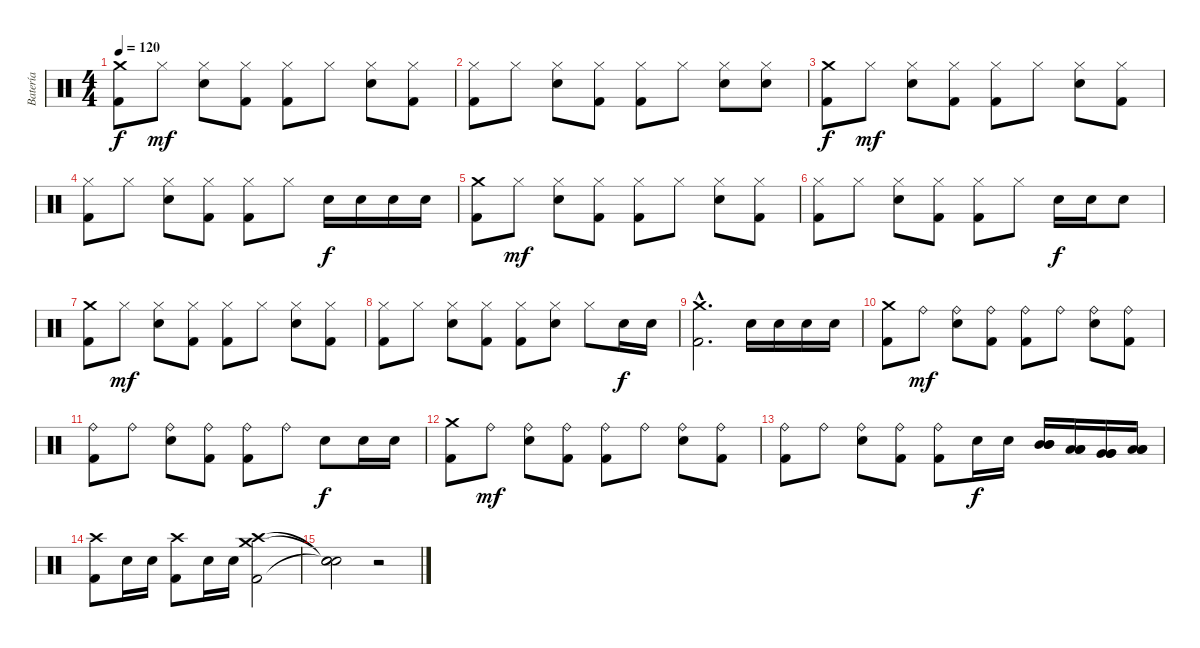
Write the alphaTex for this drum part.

\track ("Batería" "Batería") {instrument percussion}
\staff {score}
\articulation defaults
\ts (4 4)
\tempo 120
\clef neutral
\ks c
("Crash medium (hit)" "Kick (hit) 2").8{dy f} "Hi-Hat (closed)".8{dy mf} ("Hi-Hat (closed)" "Snare (hit) 2").8 ("Hi-Hat (closed)" "Kick (hit) 2").8 ("Hi-Hat (closed)" "Kick (hit) 2").8 "Hi-Hat (closed)".8 ("Hi-Hat (closed)" "Snare (hit) 2").8 ("Hi-Hat (closed)" "Kick (hit) 2").8 |
("Hi-Hat (closed)" "Kick (hit) 2").8 "Hi-Hat (closed)".8 ("Hi-Hat (closed)" "Snare (hit) 2").8 ("Hi-Hat (closed)" "Kick (hit) 2").8 ("Hi-Hat (closed)" "Kick (hit) 2").8 "Hi-Hat (closed)".8 ("Hi-Hat (closed)" "Snare (hit) 2").8 ("Hi-Hat (closed)" "Snare (hit) 2").8 |
("Crash medium (hit)" "Kick (hit) 2").8{dy f} "Hi-Hat (closed)".8{dy mf} ("Hi-Hat (closed)" "Snare (hit) 2").8 ("Hi-Hat (closed)" "Kick (hit) 2").8 ("Hi-Hat (closed)" "Kick (hit) 2").8 "Hi-Hat (closed)".8 ("Hi-Hat (closed)" "Snare (hit) 2").8 ("Hi-Hat (closed)" "Kick (hit) 2").8 |
("Hi-Hat (closed)" "Kick (hit) 2").8 "Hi-Hat (closed)".8 ("Hi-Hat (closed)" "Snare (hit) 2").8 ("Hi-Hat (closed)" "Kick (hit) 2").8 ("Hi-Hat (closed)" "Kick (hit) 2").8 "Hi-Hat (closed)".8 "Snare (hit) 2".16{dy f} "Snare (hit) 2".16 "Snare (hit) 2".16 "Snare (hit) 2".16 |
("Crash medium (hit)" "Kick (hit) 2").8 "Hi-Hat (closed)".8{dy mf} ("Hi-Hat (closed)" "Snare (hit) 2").8 ("Hi-Hat (closed)" "Kick (hit) 2").8 ("Hi-Hat (closed)" "Kick (hit) 2").8 "Hi-Hat (closed)".8 ("Hi-Hat (closed)" "Snare (hit) 2").8 ("Hi-Hat (closed)" "Kick (hit) 2").8 |
("Hi-Hat (closed)" "Kick (hit) 2").8 "Hi-Hat (closed)".8 ("Hi-Hat (closed)" "Snare (hit) 2").8 ("Hi-Hat (closed)" "Kick (hit) 2").8 ("Hi-Hat (closed)" "Kick (hit) 2").8 "Hi-Hat (closed)".8 "Snare (hit) 2".16{dy f} "Snare (hit) 2".16 "Snare (hit) 2".8 |
("Crash medium (hit)" "Kick (hit) 2").8 "Hi-Hat (closed)".8{dy mf} ("Hi-Hat (closed)" "Snare (hit) 2").8 ("Hi-Hat (closed)" "Kick (hit) 2").8 ("Hi-Hat (closed)" "Kick (hit) 2").8 "Hi-Hat (closed)".8 ("Hi-Hat (closed)" "Snare (hit) 2").8 ("Hi-Hat (closed)" "Kick (hit) 2").8 |
("Hi-Hat (closed)" "Kick (hit) 2").8 "Hi-Hat (closed)".8 ("Hi-Hat (closed)" "Snare (hit) 2").8 ("Hi-Hat (closed)" "Kick (hit) 2").8 ("Hi-Hat (closed)" "Kick (hit) 2").8 ("Hi-Hat (closed)" "Snare (hit) 2").8 "Hi-Hat (closed)".8 "Snare (hit) 2".16{dy f} "Snare (hit) 2".16 |
("Crash medium (hit)"{hac} "Kick (hit) 2"{hac}).2{d} "Snare (hit) 2".16 "Snare (hit) 2".16 "Snare (hit) 2".16 "Snare (hit) 2".16 |
("Crash medium (hit)" "Kick (hit) 2").8 "Ride (bell)".8{dy mf} ("Ride (bell)" "Snare (hit) 2").8 ("Ride (bell)" "Kick (hit) 2").8 ("Ride (bell)" "Kick (hit) 2").8 "Ride (bell)".8 ("Ride (bell)" "Snare (hit) 2").8 ("Ride (bell)" "Kick (hit) 2").8 |
("Ride (bell)" "Kick (hit) 2").8 "Ride (bell)".8 ("Ride (bell)" "Snare (hit) 2").8 ("Ride (bell)" "Kick (hit) 2").8 ("Ride (bell)" "Kick (hit) 2").8 "Ride (bell)".8 "Snare (hit) 2".8{dy f} "Snare (hit) 2".16 "Snare (hit) 2".16 |
("Crash medium (hit)" "Kick (hit) 2").8 "Ride (bell)".8{dy mf} ("Ride (bell)" "Snare (hit) 2").8 ("Ride (bell)" "Kick (hit) 2").8 ("Ride (bell)" "Kick (hit) 2").8 "Ride (bell)".8 ("Ride (bell)" "Snare (hit) 2").8 ("Ride (bell)" "Kick (hit) 2").8 |
("Ride (bell)" "Kick (hit) 2").8 "Ride (bell)".8 ("Ride (bell)" "Snare (hit) 2").8 ("Ride (bell)" "Kick (hit) 2").8 ("Ride (bell)" "Kick (hit) 2").8 "Snare (hit) 2".16{dy f} "Snare (hit) 2".16 ("Mid Tom (hit)" "Mid Tom (hit)" "Mid Tom (hit)").16 ("Low Tom (hit)" "Low Tom (hit)" "Low Tom (hit)").16 ("Very Low Tom (hit)" "Very Low Tom (hit)" "Very Low Tom (hit)").16 ("Low Floor Tom (hit)" "Low Floor Tom (hit)" "Low Floor Tom (hit)").16 |
("Crash high (hit)" "Kick (hit) 2").8 "Snare (hit) 2".16 "Snare (hit) 2".16 ("Crash high (hit)" "Kick (hit) 2").8 "Snare (hit) 2".16 "Snare (hit) 2".16 ("Crash medium (hit)" "Crash high (hit)" "Kick (hit) 2").2 |
("Snare (hit)"{t} "Snare (hit)"{t} "Snare (hit)"{t}).2 r.2
